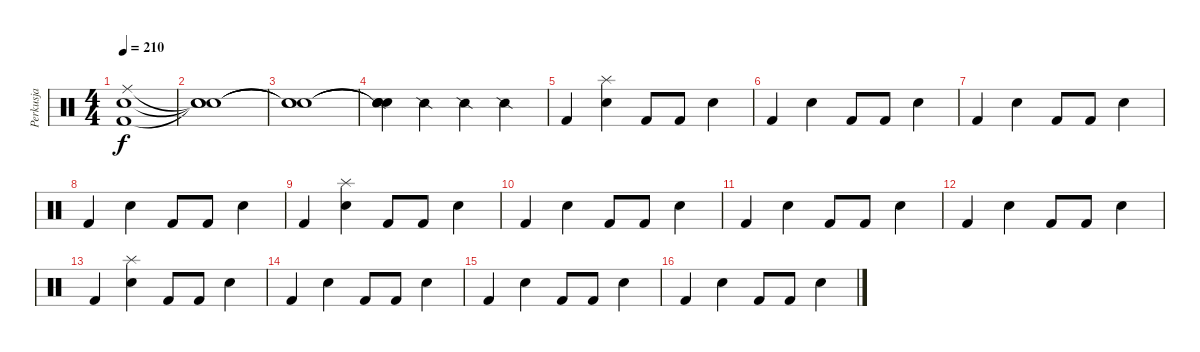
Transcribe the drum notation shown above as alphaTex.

\track ("Perkusja" "Perkusja") {instrument percussion}
\staff {score}
\articulation defaults
\ts (4 4)
\tempo 210
\clef neutral
\ks c
("Kick (hit) 2" "Ride (middle)" "Snare (hit) 2").1{dy f} |
("Snare (hit)"{t} "Snare (hit)"{t} "Snare (hit)"{t}).1 |
("Snare (hit)"{t} "Snare (hit)"{t} "Snare (hit)"{t}).1 |
("Snare (hit)"{t} "Snare (hit)"{t} "Snare (hit)"{t} "Snare (side stick) 2").4 "Snare (side stick) 2".4 "Snare (side stick) 2".4 "Snare (side stick) 2".4 |
"Kick (hit) 2".4 ("Snare (hit) 2" "Splash (hit)").4 "Kick (hit) 2".8 "Kick (hit) 2".8 "Snare (hit) 2".4 |
"Kick (hit) 2".4 "Snare (hit) 2".4 "Kick (hit) 2".8 "Kick (hit) 2".8 "Snare (hit) 2".4 |
"Kick (hit) 2".4 "Snare (hit) 2".4 "Kick (hit) 2".8 "Kick (hit) 2".8 "Snare (hit) 2".4 |
"Kick (hit) 2".4 "Snare (hit) 2".4 "Kick (hit) 2".8 "Kick (hit) 2".8 "Snare (hit) 2".4 |
"Kick (hit) 2".4 ("Snare (hit) 2" "Splash (hit)").4 "Kick (hit) 2".8 "Kick (hit) 2".8 "Snare (hit) 2".4 |
"Kick (hit) 2".4 "Snare (hit) 2".4 "Kick (hit) 2".8 "Kick (hit) 2".8 "Snare (hit) 2".4 |
"Kick (hit) 2".4 "Snare (hit) 2".4 "Kick (hit) 2".8 "Kick (hit) 2".8 "Snare (hit) 2".4 |
"Kick (hit) 2".4 "Snare (hit) 2".4 "Kick (hit) 2".8 "Kick (hit) 2".8 "Snare (hit) 2".4 |
"Kick (hit) 2".4 ("Snare (hit) 2" "Splash (hit)").4 "Kick (hit) 2".8 "Kick (hit) 2".8 "Snare (hit) 2".4 |
"Kick (hit) 2".4 "Snare (hit) 2".4 "Kick (hit) 2".8 "Kick (hit) 2".8 "Snare (hit) 2".4 |
"Kick (hit) 2".4 "Snare (hit) 2".4 "Kick (hit) 2".8 "Kick (hit) 2".8 "Snare (hit) 2".4 |
"Kick (hit) 2".4 "Snare (hit) 2".4 "Kick (hit) 2".8 "Kick (hit) 2".8 "Snare (hit) 2".4
